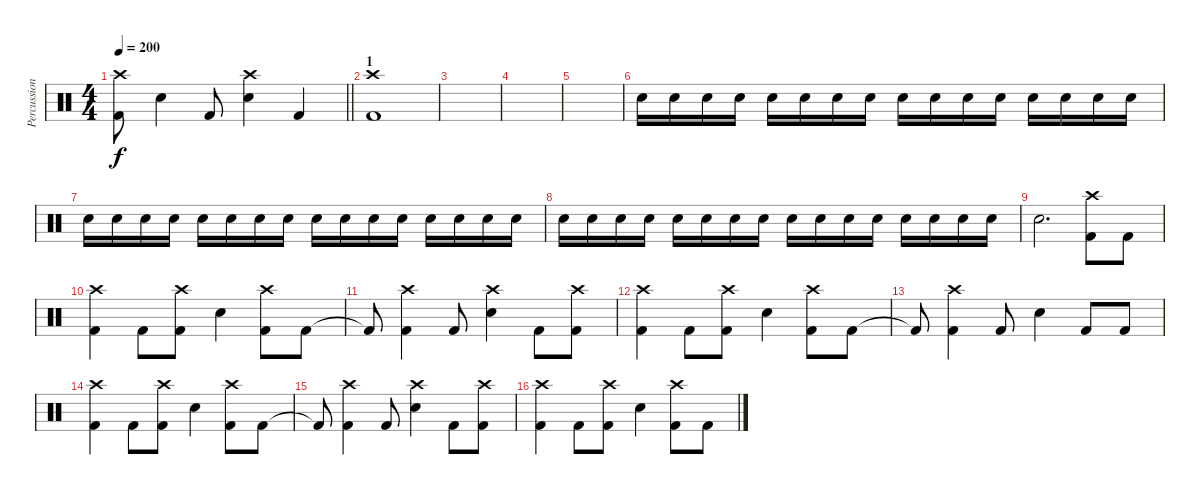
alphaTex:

\track ("Percussion" "Percussion") {instrument percussion}
\staff {score}
\articulation defaults
\ts (4 4)
\tempo 200
\clef neutral
\barLineRight lightlight
\ks c
("Crash high (hit)" "Kick (hit) 2").8{dy f} "Snare (hit) 2".4 "Kick (hit) 2".8 ("Crash high (hit)" "Snare (hit) 2").4 "Kick (hit) 2".4 |
\section ("" "1")
("Crash high (hit)" "Kick (hit) 2").1 |
|
|
|
"Snare (hit) 2".16 "Snare (hit) 2".16 "Snare (hit) 2".16 "Snare (hit) 2".16 "Snare (hit) 2".16 "Snare (hit) 2".16 "Snare (hit) 2".16 "Snare (hit) 2".16 "Snare (hit) 2".16 "Snare (hit) 2".16 "Snare (hit) 2".16 "Snare (hit) 2".16 "Snare (hit) 2".16 "Snare (hit) 2".16 "Snare (hit) 2".16 "Snare (hit) 2".16 |
"Snare (hit) 2".16 "Snare (hit) 2".16 "Snare (hit) 2".16 "Snare (hit) 2".16 "Snare (hit) 2".16 "Snare (hit) 2".16 "Snare (hit) 2".16 "Snare (hit) 2".16 "Snare (hit) 2".16 "Snare (hit) 2".16 "Snare (hit) 2".16 "Snare (hit) 2".16 "Snare (hit) 2".16 "Snare (hit) 2".16 "Snare (hit) 2".16 "Snare (hit) 2".16 |
"Snare (hit) 2".16 "Snare (hit) 2".16 "Snare (hit) 2".16 "Snare (hit) 2".16 "Snare (hit) 2".16 "Snare (hit) 2".16 "Snare (hit) 2".16 "Snare (hit) 2".16 "Snare (hit) 2".16 "Snare (hit) 2".16 "Snare (hit) 2".16 "Snare (hit) 2".16 "Snare (hit) 2".16 "Snare (hit) 2".16 "Snare (hit) 2".16 "Snare (hit) 2".16 |
"Snare (hit) 2".2{d} ("Crash high (hit)" "Kick (hit) 2").8 "Kick (hit) 2".8 |
("Crash high (hit)" "Kick (hit) 2").4 "Kick (hit) 2".8 ("Crash high (hit)" "Kick (hit) 2").8 "Snare (hit) 2".4 ("Crash high (hit)" "Kick (hit) 2").8 "Kick (hit) 2".8 |
"Kick (hit) 2"{t}.8 ("Crash high (hit)" "Kick (hit) 2").4 "Kick (hit) 2".8 ("Crash high (hit)" "Snare (hit) 2").4 "Kick (hit) 2".8 ("Crash high (hit)" "Kick (hit) 2").8 |
("Crash high (hit)" "Kick (hit) 2").4 "Kick (hit) 2".8 ("Crash high (hit)" "Kick (hit) 2").8 "Snare (hit) 2".4 ("Crash high (hit)" "Kick (hit) 2").8 "Kick (hit) 2".8 |
"Kick (hit) 2"{t}.8 ("Crash high (hit)" "Kick (hit) 2").4 "Kick (hit) 2".8 "Snare (hit) 2".4 "Kick (hit) 2".8 "Kick (hit) 2".8 |
("Crash high (hit)" "Kick (hit) 2").4 "Kick (hit) 2".8 ("Crash high (hit)" "Kick (hit) 2").8 "Snare (hit) 2".4 ("Crash high (hit)" "Kick (hit) 2").8 "Kick (hit) 2".8 |
"Kick (hit) 2"{t}.8 ("Crash high (hit)" "Kick (hit) 2").4 "Kick (hit) 2".8 ("Crash high (hit)" "Snare (hit) 2").4 "Kick (hit) 2".8 ("Crash high (hit)" "Kick (hit) 2").8 |
("Crash high (hit)" "Kick (hit) 2").4 "Kick (hit) 2".8 ("Crash high (hit)" "Kick (hit) 2").8 "Snare (hit) 2".4 ("Crash high (hit)" "Kick (hit) 2").8 "Kick (hit) 2".8
